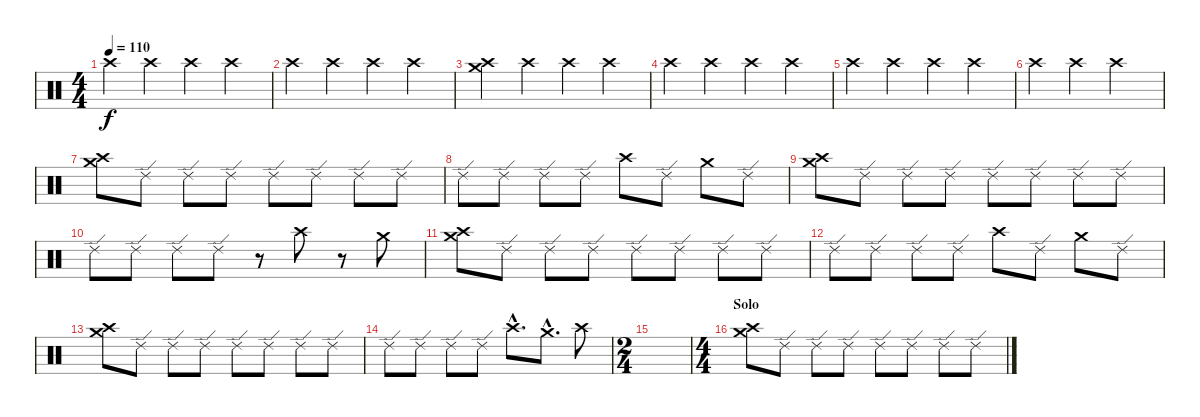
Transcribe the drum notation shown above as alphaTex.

\track "" {instrument percussion}
\staff {score}
\articulation defaults
\ts (4 4)
\tempo 110
\clef neutral
\ks c "Crash high (hit)".4{dy f} "Crash high (hit)".4 "Crash high (hit)".4 "Crash high (hit)".4
|
"Crash high (hit)".4 "Crash high (hit)".4 "Crash high (hit)".4 "Crash high (hit)".4 |
("Crash medium (hit)" "Crash high (hit)").4 "Crash high (hit)".4 "Crash high (hit)".4 "Crash high (hit)".4 |
"Crash high (hit)".4 "Crash high (hit)".4 "Crash high (hit)".4 "Crash high (hit)".4 |
"Crash high (hit)".4 "Crash high (hit)".4 "Crash high (hit)".4 "Crash high (hit)".4 |
"Crash high (hit)".4 "Crash high (hit)".4 "Crash high (hit)".2 |
("Crash medium (hit)" "Crash high (hit)").8 "Ride (edge) 2".8 "Ride (edge) 2".8 "Ride (edge) 2".8 "Ride (edge) 2".8 "Ride (edge) 2".8 "Ride (edge) 2".8 "Ride (edge) 2".8 |
"Ride (edge) 2".8 "Ride (edge) 2".8 "Ride (edge) 2".8 "Ride (edge) 2".8 "Crash high (hit)".8 "Ride (edge) 2".8 "Crash medium (hit)".8 "Ride (edge) 2".8 |
("Crash high (hit)" "Crash medium (hit)").8 "Ride (edge) 2".8 "Ride (edge) 2".8 "Ride (edge) 2".8 "Ride (edge) 2".8 "Ride (edge) 2".8 "Ride (edge) 2".8 "Ride (edge) 2".8 |
"Ride (edge) 2".8 "Ride (edge) 2".8 "Ride (edge) 2".8 "Ride (edge) 2".8 r.8 "Crash high (hit)".8 r.8 "Crash medium (hit)".8 |
("Crash medium (hit)" "Crash high (hit)").8 "Ride (edge) 2".8 "Ride (edge) 2".8 "Ride (edge) 2".8 "Ride (edge) 2".8 "Ride (edge) 2".8 "Ride (edge) 2".8 "Ride (edge) 2".8 |
"Ride (edge) 2".8 "Ride (edge) 2".8 "Ride (edge) 2".8 "Ride (edge) 2".8 "Crash high (hit)".8 "Ride (edge) 2".8 "Crash medium (hit)".8 "Ride (edge) 2".8 |
("Crash medium (hit)" "Crash high (hit)").8 "Ride (edge) 2".8 "Ride (edge) 2".8 "Ride (edge) 2".8 "Ride (edge) 2".8 "Ride (edge) 2".8 "Ride (edge) 2".8 "Ride (edge) 2".8 |
"Ride (edge) 2".8 "Ride (edge) 2".8 "Ride (edge) 2".8 "Ride (edge) 2".8 "Crash high (hit)"{hac}.8{d} "Crash medium (hit)"{hac}.8{d} "Crash high (hit)".8 |
\ts (2 4)
|
\ts (4 4)
\section ("" "Solo")
("Crash medium (hit)" "Crash high (hit)").8 "Ride (edge) 2".8 "Ride (edge) 2".8 "Ride (edge) 2".8 "Ride (edge) 2".8 "Ride (edge) 2".8 "Ride (edge) 2".8 "Ride (edge) 2".8
